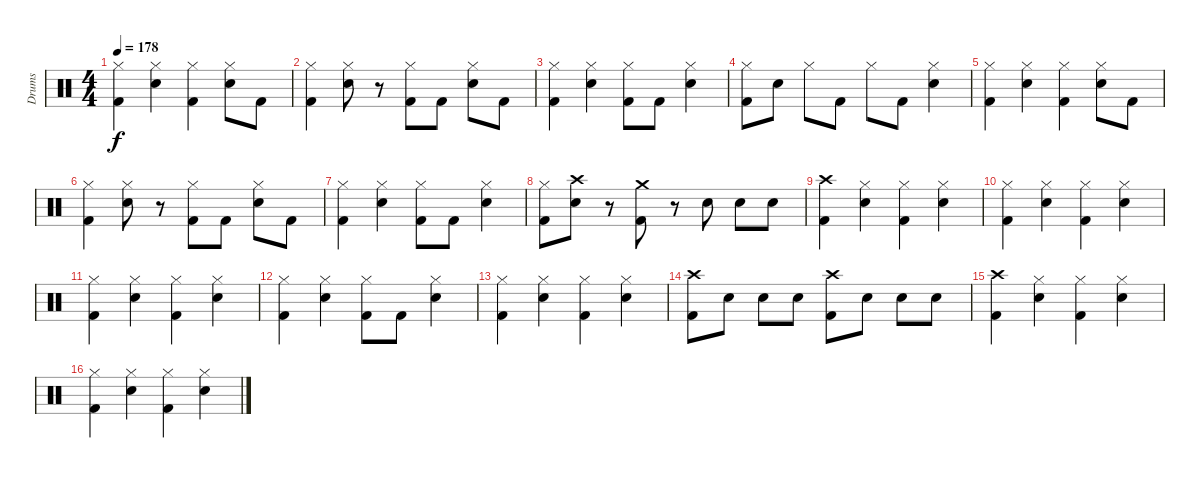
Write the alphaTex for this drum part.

\track ("Drums" "Drums") {instrument percussion}
\staff {score}
\articulation defaults
\ts (4 4)
\tempo 178
\clef neutral
\ks c
("Hi-Hat (closed)" "Kick (hit) 2").4{dy f} ("Hi-Hat (closed)" "Electric Snare (hit)").4 ("Hi-Hat (closed)" "Kick (hit) 2").4 ("Hi-Hat (closed)" "Electric Snare (hit)").8 "Kick (hit) 2".8 |
("Hi-Hat (closed)" "Kick (hit) 2").4 ("Hi-Hat (closed)" "Electric Snare (hit)").8 r.8 ("Hi-Hat (closed)" "Kick (hit) 2").8 "Kick (hit) 2".8 ("Hi-Hat (closed)" "Electric Snare (hit)").8 "Kick (hit) 2".8 |
("Hi-Hat (closed)" "Kick (hit) 2").4 ("Hi-Hat (closed)" "Electric Snare (hit)").4 ("Hi-Hat (closed)" "Kick (hit) 2").8 "Kick (hit) 2".8 ("Hi-Hat (closed)" "Electric Snare (hit)").4 |
("Hi-Hat (closed)" "Kick (hit) 2").8 "Electric Snare (hit)".8 "Hi-Hat (closed)".8 "Kick (hit) 2".8 "Hi-Hat (closed)".8 "Kick (hit) 2".8 ("Hi-Hat (closed)" "Electric Snare (hit)").4 |
("Hi-Hat (closed)" "Kick (hit) 2").4 ("Hi-Hat (closed)" "Electric Snare (hit)").4 ("Hi-Hat (closed)" "Kick (hit) 2").4 ("Hi-Hat (closed)" "Electric Snare (hit)").8 "Kick (hit) 2".8 |
("Hi-Hat (closed)" "Kick (hit) 2").4 ("Hi-Hat (closed)" "Electric Snare (hit)").8 r.8 ("Hi-Hat (closed)" "Kick (hit) 2").8 "Kick (hit) 2".8 ("Hi-Hat (closed)" "Electric Snare (hit)").8 "Kick (hit) 2".8 |
("Hi-Hat (closed)" "Kick (hit) 2").4 ("Hi-Hat (closed)" "Electric Snare (hit)").4 ("Hi-Hat (closed)" "Kick (hit) 2").8 "Kick (hit) 2".8 ("Hi-Hat (closed)" "Electric Snare (hit)").4 |
("Hi-Hat (closed)" "Kick (hit) 2").8 ("Crash high (hit)" "Electric Snare (hit)").8 r.8 ("Crash medium (hit)" "Kick (hit) 2").8 r.8 "Electric Snare (hit)".8 "Electric Snare (hit)".8 "Electric Snare (hit)".8 |
("Crash high (hit)" "Kick (hit) 2").4 ("Hi-Hat (closed)" "Electric Snare (hit)").4 ("Hi-Hat (closed)" "Kick (hit) 2").4 ("Hi-Hat (closed)" "Electric Snare (hit)").4 |
("Hi-Hat (closed)" "Kick (hit) 2").4 ("Hi-Hat (closed)" "Electric Snare (hit)").4 ("Hi-Hat (closed)" "Kick (hit) 2").4 ("Hi-Hat (closed)" "Electric Snare (hit)").4 |
("Hi-Hat (closed)" "Kick (hit) 2").4 ("Hi-Hat (closed)" "Electric Snare (hit)").4 ("Hi-Hat (closed)" "Kick (hit) 2").4 ("Hi-Hat (closed)" "Electric Snare (hit)").4 |
("Hi-Hat (closed)" "Kick (hit) 2").4 ("Hi-Hat (closed)" "Electric Snare (hit)").4 ("Hi-Hat (closed)" "Kick (hit) 2").8 "Kick (hit) 2".8 ("Hi-Hat (closed)" "Electric Snare (hit)").4 |
("Hi-Hat (closed)" "Kick (hit) 2").4 ("Hi-Hat (closed)" "Electric Snare (hit)").4 ("Hi-Hat (closed)" "Kick (hit) 2").4 ("Hi-Hat (closed)" "Electric Snare (hit)").4 |
("Crash high (hit)" "Kick (hit) 2").8 "Electric Snare (hit)".8 "Electric Snare (hit)".8 "Electric Snare (hit)".8 ("Crash high (hit)" "Kick (hit) 2").8 "Electric Snare (hit)".8 "Electric Snare (hit)".8 "Electric Snare (hit)".8 |
("Crash high (hit)" "Kick (hit) 2").4 ("Hi-Hat (closed)" "Electric Snare (hit)").4 ("Hi-Hat (closed)" "Kick (hit) 2").4 ("Hi-Hat (closed)" "Electric Snare (hit)").4 |
("Hi-Hat (closed)" "Kick (hit) 2").4 ("Hi-Hat (closed)" "Electric Snare (hit)").4 ("Hi-Hat (closed)" "Kick (hit) 2").4 ("Hi-Hat (closed)" "Electric Snare (hit)").4
